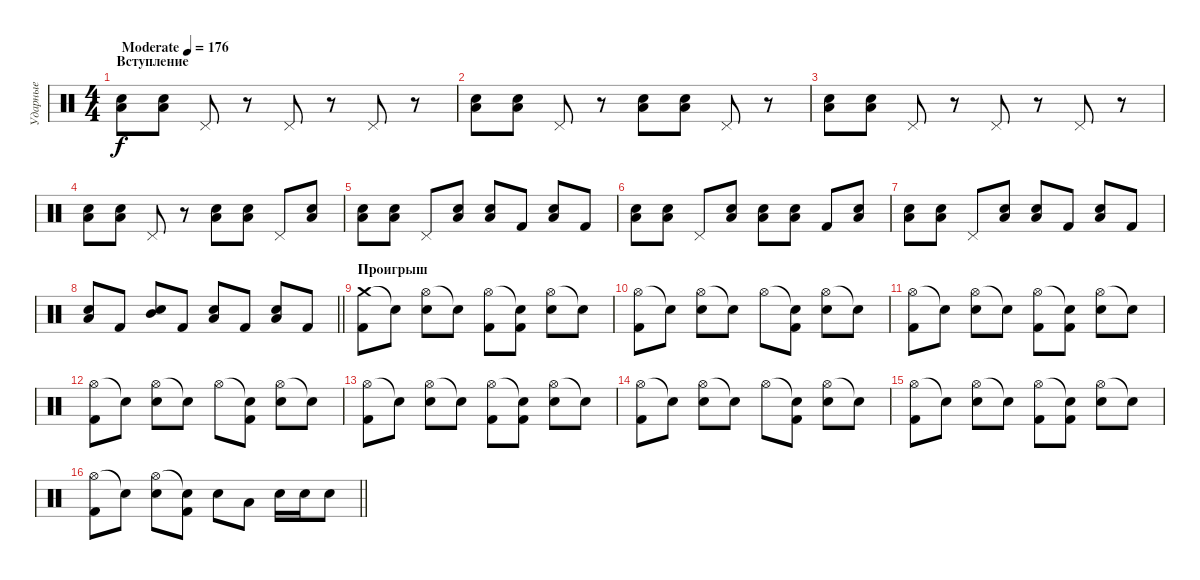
\track ("Ударные" "Ударные") {instrument percussion}
\staff {score}
\articulation defaults
\ts (4 4)
\section ("" "Вступление")
\tempo (176 "Moderate")
\clef neutral
\ks c
("Low Floor Tom (hit)" "Snare (hit) 2").8{dy f} ("Low Floor Tom (hit)" "Snare (hit) 2").8 "Pedal Hi-Hat (hit)".8 r.8 "Pedal Hi-Hat (hit)".8 r.8 "Pedal Hi-Hat (hit)".8 r.8 |
("Low Floor Tom (hit)" "Snare (hit) 2").8 ("Low Floor Tom (hit)" "Snare (hit) 2").8 "Pedal Hi-Hat (hit)".8 r.8 ("Low Floor Tom (hit)" "Snare (hit) 2").8 ("Low Floor Tom (hit)" "Snare (hit) 2").8 "Pedal Hi-Hat (hit)".8 r.8 |
("Low Floor Tom (hit)" "Snare (hit) 2").8 ("Low Floor Tom (hit)" "Snare (hit) 2").8 "Pedal Hi-Hat (hit)".8 r.8 "Pedal Hi-Hat (hit)".8 r.8 "Pedal Hi-Hat (hit)".8 r.8 |
("Low Floor Tom (hit)" "Snare (hit) 2").8 ("Low Floor Tom (hit)" "Snare (hit) 2").8 "Pedal Hi-Hat (hit)".8 r.8 ("Low Floor Tom (hit)" "Snare (hit) 2").8 ("Low Floor Tom (hit)" "Snare (hit) 2").8 "Pedal Hi-Hat (hit)".8 ("Low Floor Tom (hit)" "Snare (hit) 2").8 |
("Low Floor Tom (hit)" "Snare (hit) 2").8 ("Low Floor Tom (hit)" "Snare (hit) 2").8 "Pedal Hi-Hat (hit)".8 ("Low Floor Tom (hit)" "Snare (hit) 2").8 ("Low Floor Tom (hit)" "Snare (hit) 2").8 "Kick (hit) 2".8 ("Low Floor Tom (hit)" "Snare (hit) 2").8 "Kick (hit) 2".8 |
("Low Floor Tom (hit)" "Snare (hit) 2").8 ("Low Floor Tom (hit)" "Snare (hit) 2").8 "Pedal Hi-Hat (hit)".8 ("Low Floor Tom (hit)" "Snare (hit) 2").8 ("Low Floor Tom (hit)" "Snare (hit) 2").8 ("Low Floor Tom (hit)" "Snare (hit) 2").8 "Kick (hit) 2".8 ("Low Floor Tom (hit)" "Snare (hit) 2").8 |
("Low Floor Tom (hit)" "Snare (hit) 2").8 ("Low Floor Tom (hit)" "Snare (hit) 2").8 "Pedal Hi-Hat (hit)".8 ("Low Floor Tom (hit)" "Snare (hit) 2").8 ("Low Floor Tom (hit)" "Snare (hit) 2").8 "Kick (hit) 2".8 ("Low Floor Tom (hit)" "Snare (hit) 2").8 "Kick (hit) 2".8 |
\barLineRight lightlight
("Low Floor Tom (hit)" "Snare (hit) 2").8 "Kick (hit) 2".8 ("Mid Tom (hit)" "Snare (hit) 2").8 "Kick (hit) 2".8 ("Low Floor Tom (hit)" "Snare (hit) 2").8 "Kick (hit) 2".8 ("Low Tom (hit)" "Snare (hit) 2").8 "Kick (hit) 2".8 |
\section ("" "Проигрыш")
("Crash medium (hit)" "Kick (hit) 2").8 "Snare (hit)"{t}.8 ("Hi-Hat (open)" "Snare (hit) 2").8 "Snare (hit)"{t}.8 ("Hi-Hat (open)" "Kick (hit) 2").8 ("Snare (hit)"{t} "Kick (hit) 2").8 ("Hi-Hat (open)" "Snare (hit) 2").8 "Snare (hit)"{t}.8 |
("Hi-Hat (open)" "Kick (hit) 2").8 "Snare (hit)"{t}.8 ("Hi-Hat (open)" "Snare (hit) 2").8 "Snare (hit)"{t}.8 "Hi-Hat (open)".8 ("Snare (hit)"{t} "Kick (hit) 2").8 ("Hi-Hat (open)" "Snare (hit) 2").8 "Snare (hit)"{t}.8 |
("Hi-Hat (open)" "Kick (hit) 2").8 "Snare (hit)"{t}.8 ("Hi-Hat (open)" "Snare (hit) 2").8 "Snare (hit)"{t}.8 ("Hi-Hat (open)" "Kick (hit) 2").8 ("Snare (hit)"{t} "Kick (hit) 2").8 ("Hi-Hat (open)" "Snare (hit) 2").8 "Snare (hit)"{t}.8 |
("Hi-Hat (open)" "Kick (hit) 2").8 "Snare (hit)"{t}.8 ("Hi-Hat (open)" "Snare (hit) 2").8 "Snare (hit)"{t}.8 "Hi-Hat (open)".8 ("Snare (hit)"{t} "Kick (hit) 2").8 ("Hi-Hat (open)" "Snare (hit) 2").8 "Snare (hit)"{t}.8 |
("Hi-Hat (open)" "Kick (hit) 2").8 "Snare (hit)"{t}.8 ("Hi-Hat (open)" "Snare (hit) 2").8 "Snare (hit)"{t}.8 ("Hi-Hat (open)" "Kick (hit) 2").8 ("Snare (hit)"{t} "Kick (hit) 2").8 ("Hi-Hat (open)" "Snare (hit) 2").8 "Snare (hit)"{t}.8 |
("Hi-Hat (open)" "Kick (hit) 2").8 "Snare (hit)"{t}.8 ("Hi-Hat (open)" "Snare (hit) 2").8 "Snare (hit)"{t}.8 "Hi-Hat (open)".8 ("Snare (hit)"{t} "Kick (hit) 2").8 ("Hi-Hat (open)" "Snare (hit) 2").8 "Snare (hit)"{t}.8 |
("Hi-Hat (open)" "Kick (hit) 2").8 "Snare (hit)"{t}.8 ("Hi-Hat (open)" "Snare (hit) 2").8 "Snare (hit)"{t}.8 ("Hi-Hat (open)" "Kick (hit) 2").8 ("Snare (hit)"{t} "Kick (hit) 2").8 ("Hi-Hat (open)" "Snare (hit) 2").8 "Snare (hit)"{t}.8 |
\barLineRight lightlight
("Hi-Hat (open)" "Kick (hit) 2").8 "Snare (hit)"{t}.8 ("Hi-Hat (open)" "Snare (hit) 2").8 ("Snare (hit)"{t} "Kick (hit) 2").8 "Snare (hit) 2".8 "Low Tom (hit)".8 "Snare (hit) 2".16 "Snare (hit) 2".16 "Snare (hit) 2".8
